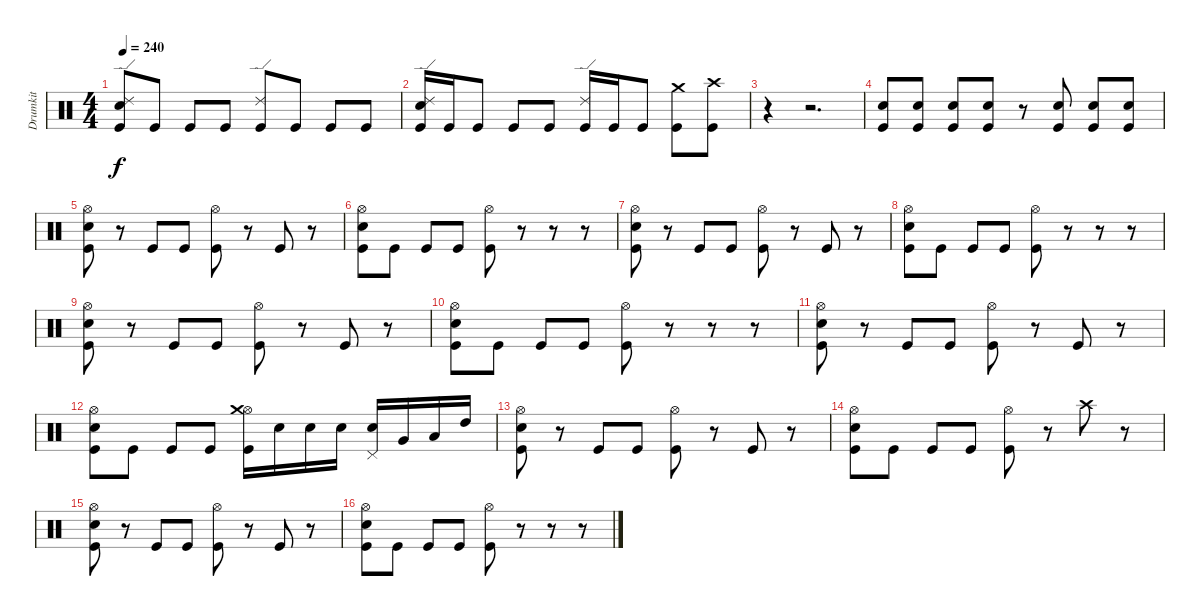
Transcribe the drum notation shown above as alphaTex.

\track ("Drumkit" "Drumkit") {instrument percussion}
\staff {score}
\articulation defaults
\ts (4 4)
\tempo 240
\clef neutral
\ks c
("Ride (edge) 2" "Snare (hit) 2" "Kick (hit)").8{dy f} "Kick (hit)".8 "Kick (hit)".8 "Kick (hit)".8 ("Ride (edge) 2" "Kick (hit)").8 "Kick (hit)".8 "Kick (hit)".8 "Kick (hit)".8 |
("Ride (edge) 2" "Snare (hit) 2" "Kick (hit)").16 "Kick (hit)".16 "Kick (hit)".8 "Kick (hit)".8 "Kick (hit)".8 ("Ride (edge) 2" "Kick (hit)").16 "Kick (hit)".16 "Kick (hit)".8 ("Crash medium (hit)" "Kick (hit)").8 ("Crash high (hit)" "Kick (hit)").8 |
r.4 r.2{d} |
("Snare (hit) 2" "Kick (hit)").8 ("Snare (hit) 2" "Kick (hit)").8 ("Snare (hit) 2" "Kick (hit)").8 ("Snare (hit) 2" "Kick (hit)").8 r.8 ("Snare (hit) 2" "Kick (hit)").8 ("Snare (hit) 2" "Kick (hit)").8 ("Snare (hit) 2" "Kick (hit)").8 |
("Hi-Hat (open)" "Snare (hit) 2" "Kick (hit)").8 r.8 "Kick (hit)".8 "Kick (hit)".8 ("Hi-Hat (open)" "Kick (hit)").8 r.8 "Kick (hit)".8 r.8 |
("Hi-Hat (open)" "Snare (hit) 2" "Kick (hit)").8 "Kick (hit)".8 "Kick (hit)".8 "Kick (hit)".8 ("Hi-Hat (open)" "Kick (hit)").8 r.8 r.8 r.8 |
("Hi-Hat (open)" "Snare (hit) 2" "Kick (hit)").8 r.8 "Kick (hit)".8 "Kick (hit)".8 ("Hi-Hat (open)" "Kick (hit)").8 r.8 "Kick (hit)".8 r.8 |
("Hi-Hat (open)" "Snare (hit) 2" "Kick (hit)").8 "Kick (hit)".8 "Kick (hit)".8 "Kick (hit)".8 ("Hi-Hat (open)" "Kick (hit)").8 r.8 r.8 r.8 |
("Hi-Hat (open)" "Snare (hit) 2" "Kick (hit)").8 r.8 "Kick (hit)".8 "Kick (hit)".8 ("Hi-Hat (open)" "Kick (hit)").8 r.8 "Kick (hit)".8 r.8 |
("Hi-Hat (open)" "Snare (hit) 2" "Kick (hit)").8 "Kick (hit)".8 "Kick (hit)".8 "Kick (hit)".8 ("Hi-Hat (open)" "Kick (hit)").8 r.8 r.8 r.8 |
("Hi-Hat (open)" "Snare (hit) 2" "Kick (hit)").8 r.8 "Kick (hit)".8 "Kick (hit)".8 ("Hi-Hat (open)" "Kick (hit)").8 r.8 "Kick (hit)".8 r.8 |
("Hi-Hat (open)" "Snare (hit) 2" "Kick (hit)").8 "Kick (hit)".8 "Kick (hit)".8 "Kick (hit)".8 ("Hi-Hat (open)" "Crash medium (hit)" "Kick (hit)").16 "Snare (hit) 2".16 "Snare (hit) 2".16 "Snare (hit) 2".16 ("Snare (hit) 2" "Pedal Hi-Hat (hit)").16 "Very Low Tom (hit)".16 "Low Tom (hit)".16 "High Tom (hit)".16 |
("Hi-Hat (open)" "Snare (hit) 2" "Kick (hit)").8 r.8 "Kick (hit)".8 "Kick (hit)".8 ("Hi-Hat (open)" "Kick (hit)").8 r.8 "Kick (hit)".8 r.8 |
("Hi-Hat (open)" "Snare (hit) 2" "Kick (hit)").8 "Kick (hit)".8 "Kick (hit)".8 "Kick (hit)".8 ("Hi-Hat (open)" "Kick (hit)").8 r.8 "Crash high (hit)".8 r.8 |
("Hi-Hat (open)" "Snare (hit) 2" "Kick (hit)").8 r.8 "Kick (hit)".8 "Kick (hit)".8 ("Hi-Hat (open)" "Kick (hit)").8 r.8 "Kick (hit)".8 r.8 |
("Hi-Hat (open)" "Snare (hit) 2" "Kick (hit)").8 "Kick (hit)".8 "Kick (hit)".8 "Kick (hit)".8 ("Hi-Hat (open)" "Kick (hit)").8 r.8 r.8 r.8
